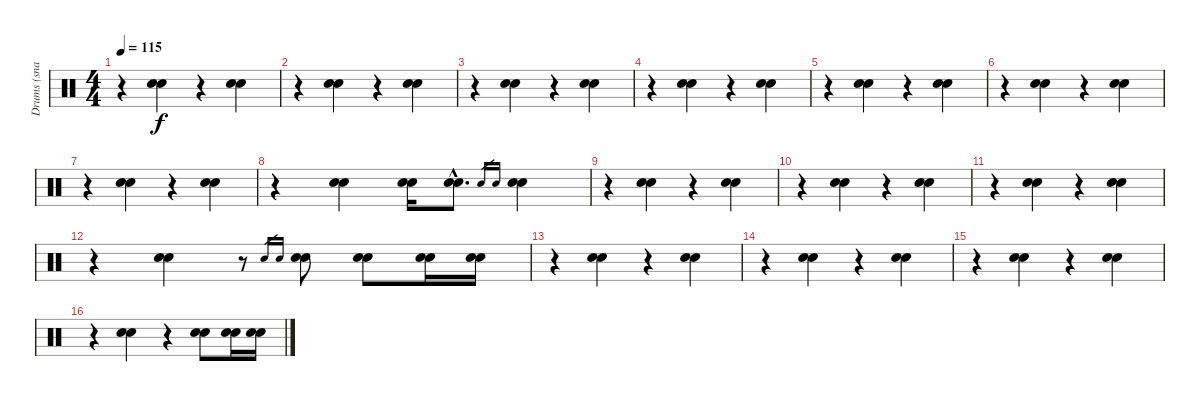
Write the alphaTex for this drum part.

\track ("Drums (snare drum)" "Drums (sna") {instrument percussion}
\staff {score}
\articulation defaults
\ts (4 4)
\tempo 115
\clef neutral
\ks c
r.4{dy f} ("Electric Snare (hit)" "Snare (hit) 2").4 r.4 ("Electric Snare (hit)" "Snare (hit) 2").4 |
r.4 ("Electric Snare (hit)" "Snare (hit) 2").4 r.4 ("Electric Snare (hit)" "Snare (hit) 2").4 |
r.4 ("Electric Snare (hit)" "Snare (hit) 2").4 r.4 ("Electric Snare (hit)" "Snare (hit) 2").4 |
r.4 ("Electric Snare (hit)" "Snare (hit) 2").4 r.4 ("Electric Snare (hit)" "Snare (hit) 2").4 |
r.4 ("Electric Snare (hit)" "Snare (hit) 2").4 r.4 ("Electric Snare (hit)" "Snare (hit) 2").4 |
r.4 ("Electric Snare (hit)" "Snare (hit) 2").4 r.4 ("Electric Snare (hit)" "Snare (hit) 2").4 |
r.4 ("Electric Snare (hit)" "Snare (hit) 2").4 r.4 ("Electric Snare (hit)" "Snare (hit) 2").4 |
r.4 ("Electric Snare (hit)" "Snare (hit) 2").4 ("Electric Snare (hit)" "Snare (hit) 2").16 ("Electric Snare (hit)"{hac} "Snare (hit) 2"{hac}).8{d} "Electric Snare (hit)".16{gr} "Snare (hit) 2".16{gr} ("Electric Snare (hit)" "Snare (hit) 2").4 |
r.4 ("Electric Snare (hit)" "Snare (hit) 2").4 r.4 ("Electric Snare (hit)" "Snare (hit) 2").4 |
r.4 ("Electric Snare (hit)" "Snare (hit) 2").4 r.4 ("Electric Snare (hit)" "Snare (hit) 2").4 |
r.4 ("Electric Snare (hit)" "Snare (hit) 2").4 r.4 ("Electric Snare (hit)" "Snare (hit) 2").4 |
r.4 ("Electric Snare (hit)" "Snare (hit) 2").4 r.8 "Electric Snare (hit)".16{gr} "Snare (hit) 2".16{gr} ("Electric Snare (hit)" "Snare (hit) 2").8 ("Electric Snare (hit)" "Snare (hit) 2").8 ("Electric Snare (hit)" "Snare (hit) 2").16 ("Electric Snare (hit)" "Snare (hit) 2").16 |
r.4 ("Electric Snare (hit)" "Snare (hit) 2").4 r.4 ("Electric Snare (hit)" "Snare (hit) 2").4 |
r.4 ("Electric Snare (hit)" "Snare (hit) 2").4 r.4 ("Electric Snare (hit)" "Snare (hit) 2").4 |
r.4 ("Electric Snare (hit)" "Snare (hit) 2").4 r.4 ("Electric Snare (hit)" "Snare (hit) 2").4 |
r.4 ("Electric Snare (hit)" "Snare (hit) 2").4 r.4 ("Electric Snare (hit)" "Snare (hit) 2").8 ("Electric Snare (hit)" "Snare (hit) 2").16 ("Electric Snare (hit)" "Snare (hit) 2").16
